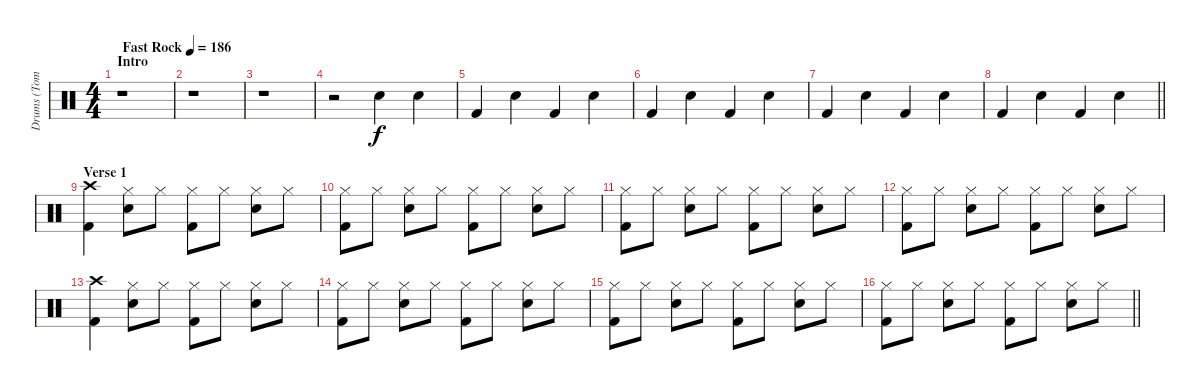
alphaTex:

\track ("Drums (Tommy)" "Drums (Tom") {instrument percussion}
\staff {score}
\articulation defaults
\ts (4 4)
\section ("" "Intro")
\tempo (186 "Fast Rock")
\clef neutral
\ks c
r.1{dy f} |
r.1 |
r.1 |
r.2 "Electric Snare (hit)".4 "Electric Snare (hit)".4 |
"Kick (hit) 2".4 "Electric Snare (hit)".4 "Kick (hit) 2".4 "Electric Snare (hit)".4 |
"Kick (hit) 2".4 "Electric Snare (hit)".4 "Kick (hit) 2".4 "Electric Snare (hit)".4 |
"Kick (hit) 2".4 "Electric Snare (hit)".4 "Kick (hit) 2".4 "Electric Snare (hit)".4 |
\barLineRight lightlight "Kick (hit) 2".4 "Electric Snare (hit)".4 "Kick (hit) 2".4 "Electric Snare (hit)".4
|
\section ("" "Verse 1")
("Crash high (hit)" "Kick (hit) 2").4 ("Hi-Hat (closed)" "Electric Snare (hit)").8 "Hi-Hat (closed)".8 ("Hi-Hat (closed)" "Kick (hit) 2").8 "Hi-Hat (closed)".8 ("Hi-Hat (closed)" "Electric Snare (hit)").8 "Hi-Hat (closed)".8 |
("Hi-Hat (closed)" "Kick (hit) 2").8 "Hi-Hat (closed)".8 ("Hi-Hat (closed)" "Electric Snare (hit)").8 "Hi-Hat (closed)".8 ("Hi-Hat (closed)" "Kick (hit) 2").8 "Hi-Hat (closed)".8 ("Hi-Hat (closed)" "Electric Snare (hit)").8 "Hi-Hat (closed)".8 |
("Hi-Hat (closed)" "Kick (hit) 2").8 "Hi-Hat (closed)".8 ("Hi-Hat (closed)" "Electric Snare (hit)").8 "Hi-Hat (closed)".8 ("Hi-Hat (closed)" "Kick (hit) 2").8 "Hi-Hat (closed)".8 ("Hi-Hat (closed)" "Electric Snare (hit)").8 "Hi-Hat (closed)".8 |
("Hi-Hat (closed)" "Kick (hit) 2").8 "Hi-Hat (closed)".8 ("Hi-Hat (closed)" "Electric Snare (hit)").8 "Hi-Hat (closed)".8 ("Hi-Hat (closed)" "Kick (hit) 2").8 "Hi-Hat (closed)".8 ("Hi-Hat (closed)" "Electric Snare (hit)").8 "Hi-Hat (closed)".8 |
("Crash high (hit)" "Kick (hit) 2").4 ("Hi-Hat (closed)" "Electric Snare (hit)").8 "Hi-Hat (closed)".8 ("Hi-Hat (closed)" "Kick (hit) 2").8 "Hi-Hat (closed)".8 ("Hi-Hat (closed)" "Electric Snare (hit)").8 "Hi-Hat (closed)".8 |
("Hi-Hat (closed)" "Kick (hit) 2").8 "Hi-Hat (closed)".8 ("Hi-Hat (closed)" "Electric Snare (hit)").8 "Hi-Hat (closed)".8 ("Hi-Hat (closed)" "Kick (hit) 2").8 "Hi-Hat (closed)".8 ("Hi-Hat (closed)" "Electric Snare (hit)").8 "Hi-Hat (closed)".8 |
("Hi-Hat (closed)" "Kick (hit) 2").8 "Hi-Hat (closed)".8 ("Hi-Hat (closed)" "Electric Snare (hit)").8 "Hi-Hat (closed)".8 ("Hi-Hat (closed)" "Kick (hit) 2").8 "Hi-Hat (closed)".8 ("Hi-Hat (closed)" "Electric Snare (hit)").8 "Hi-Hat (closed)".8 |
\barLineRight lightlight
("Hi-Hat (closed)" "Kick (hit) 2").8 "Hi-Hat (closed)".8 ("Hi-Hat (closed)" "Electric Snare (hit)").8 "Hi-Hat (closed)".8 ("Hi-Hat (closed)" "Kick (hit) 2").8 "Hi-Hat (closed)".8 ("Hi-Hat (closed)" "Electric Snare (hit)").8 "Hi-Hat (closed)".8
